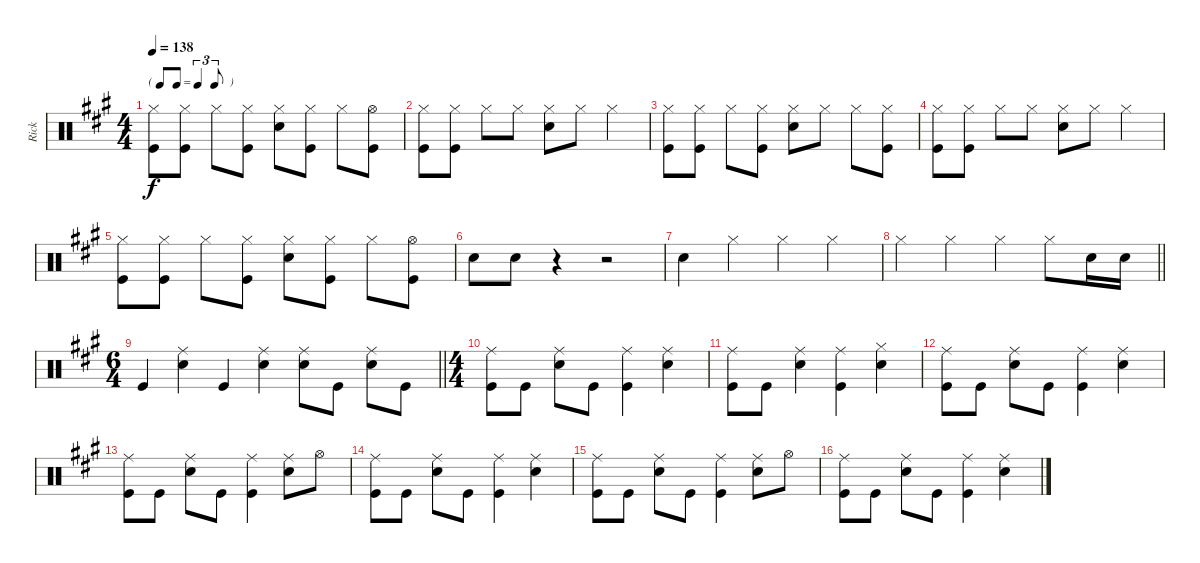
\track ("Rick" "Rick") {instrument percussion}
\staff {score}
\articulation defaults
\ts (4 4)
\tf triplet8th
\tempo 138
\clef neutral
\ks a
("Hi-Hat (closed)" "Kick (hit)").8{dy f} ("Hi-Hat (closed)" "Kick (hit)").8 "Hi-Hat (closed)".8 ("Hi-Hat (closed)" "Kick (hit)").8 ("Hi-Hat (closed)" "Snare (hit) 2").8 ("Hi-Hat (closed)" "Kick (hit)").8 "Hi-Hat (closed)".8 ("Hi-Hat (open)" "Kick (hit)").8 |
("Hi-Hat (closed)" "Kick (hit)").8 ("Hi-Hat (closed)" "Kick (hit)").8 "Hi-Hat (closed)".8 "Hi-Hat (closed)".8 ("Hi-Hat (closed)" "Snare (hit) 2").8 "Hi-Hat (closed)".8 "Hi-Hat (closed)".4 |
("Hi-Hat (closed)" "Kick (hit)").8 ("Hi-Hat (closed)" "Kick (hit)").8 "Hi-Hat (closed)".8 ("Hi-Hat (closed)" "Kick (hit)").8 ("Hi-Hat (closed)" "Snare (hit) 2").8 "Hi-Hat (closed)".8 "Hi-Hat (closed)".8 ("Hi-Hat (closed)" "Kick (hit)").8 |
("Hi-Hat (closed)" "Kick (hit)").8 ("Hi-Hat (closed)" "Kick (hit)").8 "Hi-Hat (closed)".8 "Hi-Hat (closed)".8 ("Hi-Hat (closed)" "Snare (hit) 2").8 "Hi-Hat (closed)".8 "Hi-Hat (closed)".4 |
("Hi-Hat (closed)" "Kick (hit)").8 ("Hi-Hat (closed)" "Kick (hit)").8 "Hi-Hat (closed)".8 ("Hi-Hat (closed)" "Kick (hit)").8 ("Hi-Hat (closed)" "Snare (hit) 2").8 ("Hi-Hat (closed)" "Kick (hit)").8 "Hi-Hat (closed)".8 ("Hi-Hat (open)" "Kick (hit)").8 |
"Snare (hit) 2".8 "Snare (hit) 2".8 r.4 r.2 |
"Snare (hit) 2".4 "Hi-Hat (closed)".4 "Hi-Hat (closed)".4 "Hi-Hat (closed)".4 |
\barLineRight lightlight "Hi-Hat (closed)".4 "Hi-Hat (closed)".4 "Hi-Hat (closed)".4 "Hi-Hat (closed)".8 "Snare (hit) 2".16 "Snare (hit) 2".16
|
\ts (6 4)
\barLineRight lightlight "Kick (hit)".4
("Ride (middle)" "Snare (hit) 2").4 "Kick (hit)".4 ("Ride (middle)" "Snare (hit) 2").4 ("Ride (middle)" "Snare (hit) 2").8 "Kick (hit)".8 ("Ride (middle)" "Snare (hit) 2").8 "Kick (hit)".8 |
\ts (4 4)
("Ride (middle)" "Kick (hit)").8 "Kick (hit)".8 ("Ride (middle)" "Snare (hit) 2").8 "Kick (hit)".8 ("Ride (middle)" "Kick (hit)").4 ("Ride (middle)" "Snare (hit) 2").4 |
("Ride (middle)" "Kick (hit)").8 "Kick (hit)".8 ("Ride (middle)" "Snare (hit) 2").4 ("Ride (middle)" "Kick (hit)").4 ("Hi-Hat (closed)" "Snare (hit) 2").4 |
("Ride (middle)" "Kick (hit)").8 "Kick (hit)".8 ("Ride (middle)" "Snare (hit) 2").8 "Kick (hit)".8 ("Ride (middle)" "Kick (hit)").4 ("Ride (middle)" "Snare (hit) 2").4 |
("Ride (middle)" "Kick (hit)").8 "Kick (hit)".8 ("Ride (middle)" "Snare (hit) 2").8 "Kick (hit)".8 ("Ride (middle)" "Kick (hit)").4 ("Ride (middle)" "Snare (hit) 2").8 "Hi-Hat (open)".8 |
("Ride (middle)" "Kick (hit)").8 "Kick (hit)".8 ("Ride (middle)" "Snare (hit) 2").8 "Kick (hit)".8 ("Ride (middle)" "Kick (hit)").4 ("Ride (middle)" "Snare (hit) 2").4 |
("Ride (middle)" "Kick (hit)").8 "Kick (hit)".8 ("Ride (middle)" "Snare (hit) 2").8 "Kick (hit)".8 ("Ride (middle)" "Kick (hit)").4 ("Ride (middle)" "Snare (hit) 2").8 "Hi-Hat (open)".8 |
("Ride (middle)" "Kick (hit)").8 "Kick (hit)".8 ("Ride (middle)" "Snare (hit) 2").8 "Kick (hit)".8 ("Ride (middle)" "Kick (hit)").4 ("Ride (middle)" "Snare (hit) 2").4
